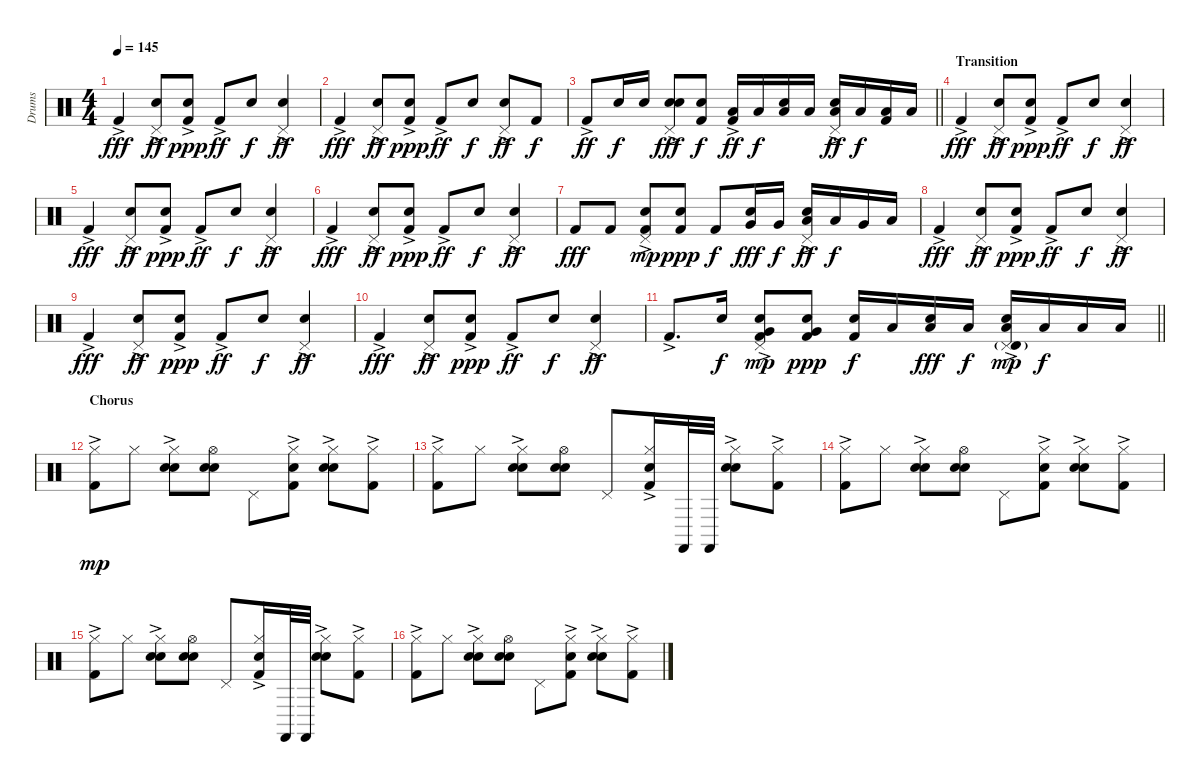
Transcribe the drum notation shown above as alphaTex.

\track ("Drums" "Drums") {instrument percussion}
\staff {score}
\articulation defaults
\ts (4 4)
\tempo 145
\clef neutral
\ks c "Kick (hit) 2"{ac}.4{dy fff}
("Pedal Hi-Hat (hit)" "Hand Clap (hit)"{ac}).8{dy ff} ("Kick (hit) 2"{ac} "Hand Clap (hit)").8{dy ppp} "Kick (hit) 2"{ac}.8{dy ff} "Hand Clap (hit)".8{dy f} ("Pedal Hi-Hat (hit)" "Hand Clap (hit)"{ac}).4{dy ff} |
"Kick (hit) 2"{ac}.4{dy fff} ("Pedal Hi-Hat (hit)" "Hand Clap (hit)"{ac}).8{dy ff} ("Kick (hit) 2"{ac} "Hand Clap (hit)").8{dy ppp} "Kick (hit) 2"{ac}.8{dy ff} "Hand Clap (hit)".8{dy f} ("Pedal Hi-Hat (hit)" "Hand Clap (hit)"{ac}).8{dy ff} "Kick (hit) 2".8{dy f} |
\barLineRight lightlight "Kick (hit) 2"{ac}.8{dy ff} "Electric Snare (hit)".16{dy f} "Electric Snare (hit)".16
("Pedal Hi-Hat (hit)" "Hand Clap (hit)"{ac} "Electric Snare (hit)").8{dy fff} ("Kick (hit) 2" "Hand Clap (hit)").8{dy f} ("Kick (hit) 2"{ac} "Low Tom (hit)").16{dy ff} "Low Tom (hit)".16{dy f} ("Low Tom (hit)" "Hand Clap (hit)").16 "Low Tom (hit)".16 ("Pedal Hi-Hat (hit)" "Low Tom (hit)" "Hand Clap (hit)"{ac}).16{dy ff} "Low Tom (hit)".16{dy f} ("Kick (hit) 2" "Low Tom (hit)").16 "Low Tom (hit)".16 |
\section ("" "Transition")
"Kick (hit) 2"{ac}.4{dy fff} ("Pedal Hi-Hat (hit)" "Hand Clap (hit)"{ac}).8{dy ff} ("Kick (hit) 2"{ac} "Hand Clap (hit)").8{dy ppp} "Kick (hit) 2"{ac}.8{dy ff} "Hand Clap (hit)".8{dy f} ("Pedal Hi-Hat (hit)" "Hand Clap (hit)"{ac}).4{dy ff} |
"Kick (hit) 2"{ac}.4{dy fff} ("Pedal Hi-Hat (hit)" "Hand Clap (hit)"{ac}).8{dy ff} ("Kick (hit) 2"{ac} "Hand Clap (hit)").8{dy ppp} "Kick (hit) 2"{ac}.8{dy ff} "Hand Clap (hit)".8{dy f} ("Pedal Hi-Hat (hit)" "Hand Clap (hit)"{ac}).4{dy ff} |
"Kick (hit) 2"{ac}.4{dy fff} ("Pedal Hi-Hat (hit)" "Hand Clap (hit)"{ac}).8{dy ff} ("Kick (hit) 2"{ac} "Hand Clap (hit)").8{dy ppp} "Kick (hit) 2"{ac}.8{dy ff} "Hand Clap (hit)".8{dy f} ("Pedal Hi-Hat (hit)" "Hand Clap (hit)"{ac}).4{dy ff} |
"Kick (hit) 2".8{dy fff} "Kick (hit) 2".8 ("Kick (hit) 2" "Pedal Hi-Hat (hit)" "Hand Clap (hit)"{ac}).8{dy mp} ("Kick (hit) 2" "Hand Clap (hit)").8{dy ppp} "Kick (hit) 2".8{dy f} ("Very Low Tom (hit)" "Hand Clap (hit)").16{dy fff} "Very Low Tom (hit)".16{dy f} ("Pedal Hi-Hat (hit)" "Low Tom (hit)" "Hand Clap (hit)"{ac}).16{dy ff} "Low Tom (hit)".16{dy f} "Very Low Tom (hit)".16 "Low Floor Tom (hit)".16 |
"Kick (hit) 2"{ac}.4{dy fff} ("Pedal Hi-Hat (hit)" "Hand Clap (hit)"{ac}).8{dy ff} ("Kick (hit) 2"{ac} "Hand Clap (hit)").8{dy ppp} "Kick (hit) 2"{ac}.8{dy ff} "Hand Clap (hit)".8{dy f} ("Pedal Hi-Hat (hit)" "Hand Clap (hit)"{ac}).4{dy ff} |
"Kick (hit) 2"{ac}.4{dy fff} ("Pedal Hi-Hat (hit)" "Hand Clap (hit)"{ac}).8{dy ff} ("Kick (hit) 2"{ac} "Hand Clap (hit)").8{dy ppp} "Kick (hit) 2"{ac}.8{dy ff} "Hand Clap (hit)".8{dy f} ("Pedal Hi-Hat (hit)" "Hand Clap (hit)"{ac}).4{dy ff} |
"Kick (hit) 2"{ac}.4{dy fff} ("Pedal Hi-Hat (hit)" "Hand Clap (hit)"{ac}).8{dy ff} ("Kick (hit) 2"{ac} "Hand Clap (hit)").8{dy ppp} "Kick (hit) 2"{ac}.8{dy ff} "Hand Clap (hit)".8{dy f} ("Pedal Hi-Hat (hit)" "Hand Clap (hit)"{ac}).4{dy ff} |
\barLineRight lightlight "Kick (hit) 2"{ac}.8{d} "Electric Snare (hit)".16{dy f}
("Kick (hit) 2" "Very Low Tom (hit)" "Hand Clap (hit)"{ac} "Pedal Hi-Hat (hit)").8{dy mp} ("Kick (hit) 2" "Very Low Tom (hit)" "Hand Clap (hit)").8{dy ppp} ("Kick (hit) 2" "Electric Snare (hit)").16{dy f} "Low Floor Tom (hit)".16 ("Low Floor Tom (hit)" "Hand Clap (hit)").16{dy fff} "Low Floor Tom (hit)".16{dy f} ("Pedal Hi-Hat (hit)" "Low Floor Tom (hit)" "Hand Clap (hit)"{ac} "Timbale high (hit)"{g}).16{dy mp} "Low Floor Tom (hit)".16{dy f} "Low Floor Tom (hit)".16 "Low Floor Tom (hit)".16 |
\section ("" "Chorus")
("Kick (hit) 2"{ac} "Hi-Hat (closed)").8{dy mp} "Hi-Hat (closed)".8 ("Hand Clap (hit)" "Electric Snare (hit)"{ac} "Hi-Hat (closed)").8 ("Hand Clap (hit)" "Electric Snare (hit)" "Hi-Hat (open)").8 "Pedal Hi-Hat (hit)".8 ("Kick (hit) 2"{ac} "Hand Clap (hit)" "Hi-Hat (closed)").8 ("Hand Clap (hit)" "Electric Snare (hit)"{ac} "Hi-Hat (closed)").8 ("Kick (hit) 2"{ac} "Hi-Hat (closed)").8 |
("Kick (hit) 2"{ac} "Hi-Hat (closed)").8 "Hi-Hat (closed)".8 ("Hand Clap (hit)" "Electric Snare (hit)"{ac} "Hi-Hat (closed)").8 ("Hand Clap (hit)" "Electric Snare (hit)" "Hi-Hat (open)").8 "Pedal Hi-Hat (hit)".8 ("Kick (hit) 2"{ac} "Hand Clap (hit)" "Hi-Hat (closed)").16 "Castanets (hit)".32 "Castanets (hit)".32 ("Hand Clap (hit)" "Electric Snare (hit)"{ac} "Hi-Hat (closed)").8 ("Kick (hit) 2"{ac} "Hi-Hat (closed)").8 |
("Kick (hit) 2"{ac} "Hi-Hat (closed)").8 "Hi-Hat (closed)".8 ("Hand Clap (hit)" "Electric Snare (hit)"{ac} "Hi-Hat (closed)").8 ("Hand Clap (hit)" "Electric Snare (hit)" "Hi-Hat (open)").8 "Pedal Hi-Hat (hit)".8 ("Kick (hit) 2"{ac} "Hand Clap (hit)" "Hi-Hat (closed)").8 ("Hand Clap (hit)" "Electric Snare (hit)"{ac} "Hi-Hat (closed)").8 ("Kick (hit) 2"{ac} "Hi-Hat (closed)").8 |
("Kick (hit) 2"{ac} "Hi-Hat (closed)").8 "Hi-Hat (closed)".8 ("Hand Clap (hit)" "Electric Snare (hit)"{ac} "Hi-Hat (closed)").8 ("Hand Clap (hit)" "Electric Snare (hit)" "Hi-Hat (open)").8 "Pedal Hi-Hat (hit)".8 ("Kick (hit) 2"{ac} "Hand Clap (hit)" "Hi-Hat (closed)").16 "Castanets (hit)".32 "Castanets (hit)".32 ("Hand Clap (hit)" "Electric Snare (hit)"{ac} "Hi-Hat (closed)").8 ("Kick (hit) 2"{ac} "Hi-Hat (closed)").8 |
("Kick (hit) 2"{ac} "Hi-Hat (closed)").8 "Hi-Hat (closed)".8 ("Hand Clap (hit)" "Electric Snare (hit)"{ac} "Hi-Hat (closed)").8 ("Hand Clap (hit)" "Electric Snare (hit)" "Hi-Hat (open)").8 "Pedal Hi-Hat (hit)".8 ("Kick (hit) 2"{ac} "Hand Clap (hit)" "Hi-Hat (closed)").8 ("Hand Clap (hit)" "Electric Snare (hit)"{ac} "Hi-Hat (closed)").8 ("Kick (hit) 2"{ac} "Hi-Hat (closed)").8
